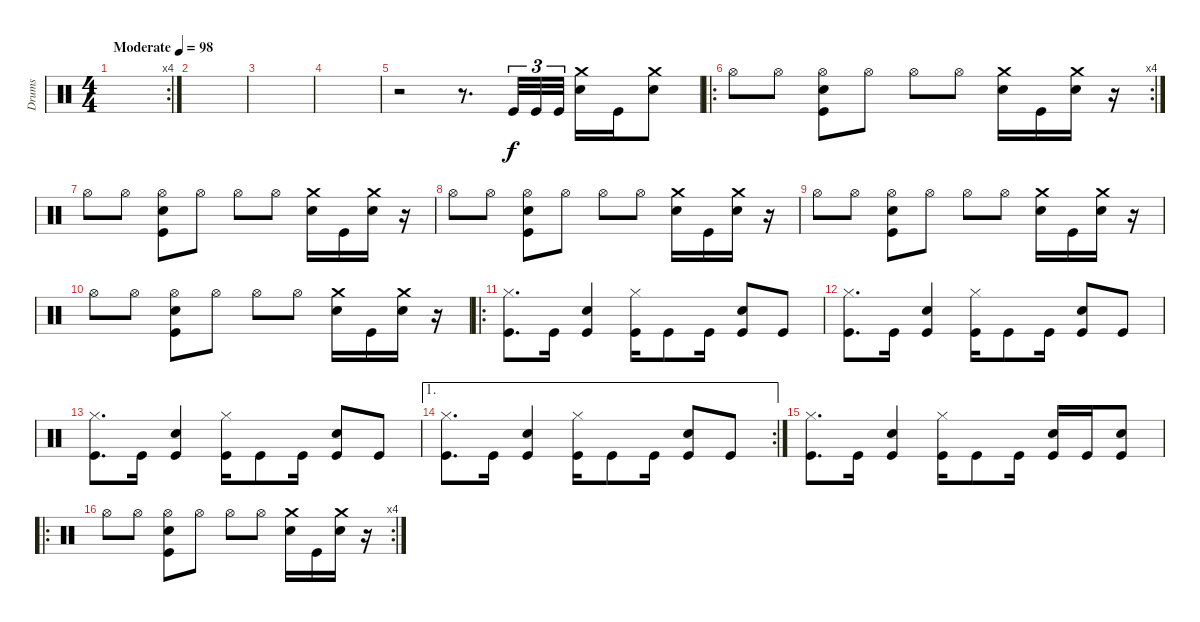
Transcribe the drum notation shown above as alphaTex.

\track ("Drums" "Drums") {instrument percussion}
\staff {score}
\articulation defaults
\rc 4
\ts (4 4)
\tempo (98 "Moderate")
\clef neutral
\ks c
|
|
|
|
r.2 r.8{d} "Kick (hit)".32{tu (3 2)} "Kick (hit)".32{tu (3 2)} "Kick (hit)".32{tu (3 2)} ("Crash medium (hit)" "Snare (hit) 2").16 "Kick (hit)".16 ("Crash medium (hit)" "Snare (hit) 2").8 |
\ro
\rc 4 "Hi-Hat (open)".8 "Hi-Hat (open)".8
("Snare (hit) 2" "Hi-Hat (open)" "Kick (hit)").8 "Hi-Hat (open)".8 "Hi-Hat (open)".8 "Hi-Hat (open)".8 ("Crash medium (hit)" "Snare (hit) 2").16 "Kick (hit)".16 ("Crash medium (hit)" "Snare (hit) 2").16 r.16 |
"Hi-Hat (open)".8 "Hi-Hat (open)".8 ("Snare (hit) 2" "Hi-Hat (open)" "Kick (hit)").8 "Hi-Hat (open)".8 "Hi-Hat (open)".8 "Hi-Hat (open)".8 ("Crash medium (hit)" "Snare (hit) 2").16 "Kick (hit)".16 ("Crash medium (hit)" "Snare (hit) 2").16 r.16 |
"Hi-Hat (open)".8 "Hi-Hat (open)".8 ("Snare (hit) 2" "Hi-Hat (open)" "Kick (hit)").8 "Hi-Hat (open)".8 "Hi-Hat (open)".8 "Hi-Hat (open)".8 ("Crash medium (hit)" "Snare (hit) 2").16 "Kick (hit)".16 ("Crash medium (hit)" "Snare (hit) 2").16 r.16 |
"Hi-Hat (open)".8 "Hi-Hat (open)".8 ("Snare (hit) 2" "Hi-Hat (open)" "Kick (hit)").8 "Hi-Hat (open)".8 "Hi-Hat (open)".8 "Hi-Hat (open)".8 ("Crash medium (hit)" "Snare (hit) 2").16 "Kick (hit)".16 ("Crash medium (hit)" "Snare (hit) 2").16 r.16 |
"Hi-Hat (open)".8 "Hi-Hat (open)".8 ("Snare (hit) 2" "Hi-Hat (open)" "Kick (hit)").8 "Hi-Hat (open)".8 "Hi-Hat (open)".8 "Hi-Hat (open)".8 ("Crash medium (hit)" "Snare (hit) 2").16 "Kick (hit)".16 ("Crash medium (hit)" "Snare (hit) 2").16 r.16 |
\ro
("Hi-Hat (closed)" "Kick (hit)").8{d} "Kick (hit)".16 ("Snare (hit) 2" "Kick (hit)").4 ("Hi-Hat (closed)" "Kick (hit)").16 "Kick (hit)".8 "Kick (hit)".16 ("Snare (hit) 2" "Kick (hit)").8 "Kick (hit)".8 |
("Hi-Hat (closed)" "Kick (hit)").8{d} "Kick (hit)".16 ("Snare (hit) 2" "Kick (hit)").4 ("Hi-Hat (closed)" "Kick (hit)").16 "Kick (hit)".8 "Kick (hit)".16 ("Snare (hit) 2" "Kick (hit)").8 "Kick (hit)".8 |
("Hi-Hat (closed)" "Kick (hit)").8{d} "Kick (hit)".16 ("Snare (hit) 2" "Kick (hit)").4 ("Hi-Hat (closed)" "Kick (hit)").16 "Kick (hit)".8 "Kick (hit)".16 ("Snare (hit) 2" "Kick (hit)").8 "Kick (hit)".8 |
\ae 1
\rc 2
("Hi-Hat (closed)" "Kick (hit)").8{d} "Kick (hit)".16 ("Snare (hit) 2" "Kick (hit)").4 ("Hi-Hat (closed)" "Kick (hit)").16 "Kick (hit)".8 "Kick (hit)".16 ("Snare (hit) 2" "Kick (hit)").8 "Kick (hit)".8 |
("Hi-Hat (closed)" "Kick (hit)").8{d} "Kick (hit)".16 ("Snare (hit) 2" "Kick (hit)").4 ("Hi-Hat (closed)" "Kick (hit)").16 "Kick (hit)".8 "Kick (hit)".16 ("Snare (hit) 2" "Kick (hit)").16 "Kick (hit)".16 ("Snare (hit) 2" "Kick (hit)").8 |
\ro
\rc 4 "Hi-Hat (open)".8 "Hi-Hat (open)".8
("Snare (hit) 2" "Hi-Hat (open)" "Kick (hit)").8 "Hi-Hat (open)".8 "Hi-Hat (open)".8 "Hi-Hat (open)".8 ("Crash medium (hit)" "Snare (hit) 2").16 "Kick (hit)".16 ("Crash medium (hit)" "Snare (hit) 2").16 r.16
